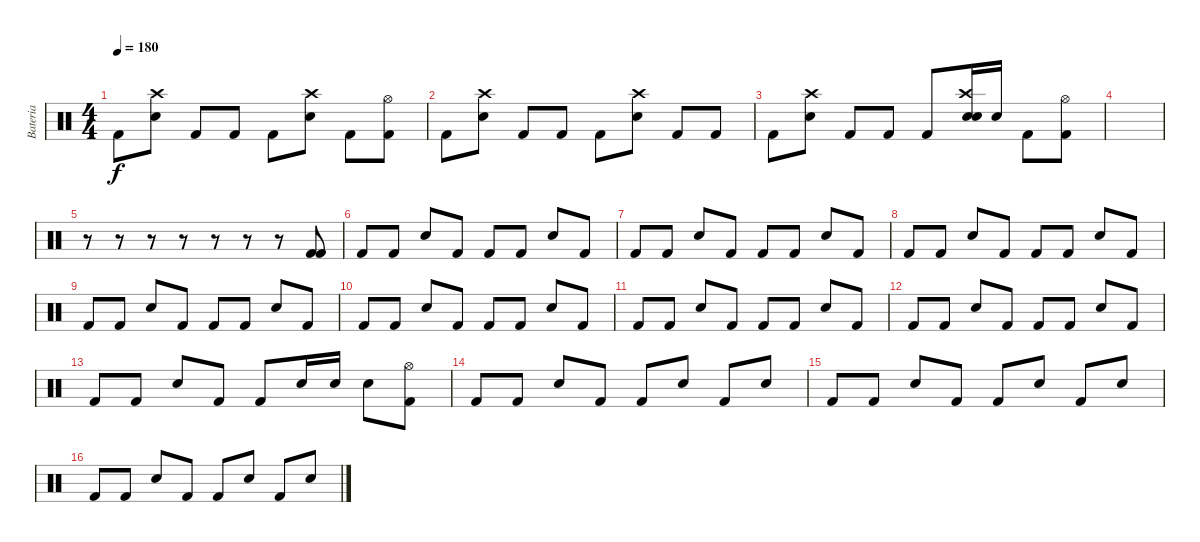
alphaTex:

\track ("Bateria" "Bateria") {instrument percussion}
\staff {score}
\articulation defaults
\ts (4 4)
\tempo 180
\clef neutral
\ks c "Kick (hit) 2".8{dy f}
("Electric Snare (hit)" "Crash high (hit)").8 "Kick (hit) 2".8 "Kick (hit) 2".8 "Kick (hit) 2".8 ("Electric Snare (hit)" "Crash high (hit)").8 "Kick (hit) 2".8 ("Kick (hit) 2" "Hi-Hat (open)").8 |
"Kick (hit) 2".8 ("Electric Snare (hit)" "Crash high (hit)").8 "Kick (hit) 2".8 "Kick (hit) 2".8 "Kick (hit) 2".8 ("Electric Snare (hit)" "Crash high (hit)").8 "Kick (hit) 2".8 "Kick (hit) 2".8 |
"Kick (hit) 2".8 ("Electric Snare (hit)" "Crash high (hit)").8 "Kick (hit) 2".8 "Kick (hit) 2".8 "Kick (hit) 2".8 ("Electric Snare (hit)" "Snare (hit) 2" "Crash high (hit)").16 "Electric Snare (hit)".16 "Kick (hit) 2".8 ("Kick (hit) 2" "Hi-Hat (open)").8 |
|
r.8 r.8 r.8 r.8 r.8 r.8 r.8 ("Kick (hit) 2" "Kick (hit) 2").8 |
"Kick (hit) 2".8 "Kick (hit) 2".8 "Electric Snare (hit)".8 "Kick (hit) 2".8 "Kick (hit) 2".8 "Kick (hit) 2".8 "Electric Snare (hit)".8 "Kick (hit) 2".8 |
"Kick (hit) 2".8 "Kick (hit) 2".8 "Electric Snare (hit)".8 "Kick (hit) 2".8 "Kick (hit) 2".8 "Kick (hit) 2".8 "Electric Snare (hit)".8 "Kick (hit) 2".8 |
"Kick (hit) 2".8 "Kick (hit) 2".8 "Electric Snare (hit)".8 "Kick (hit) 2".8 "Kick (hit) 2".8 "Kick (hit) 2".8 "Electric Snare (hit)".8 "Kick (hit) 2".8 |
"Kick (hit) 2".8 "Kick (hit) 2".8 "Electric Snare (hit)".8 "Kick (hit) 2".8 "Kick (hit) 2".8 "Kick (hit) 2".8 "Electric Snare (hit)".8 "Kick (hit) 2".8 |
"Kick (hit) 2".8 "Kick (hit) 2".8 "Electric Snare (hit)".8 "Kick (hit) 2".8 "Kick (hit) 2".8 "Kick (hit) 2".8 "Electric Snare (hit)".8 "Kick (hit) 2".8 |
"Kick (hit) 2".8 "Kick (hit) 2".8 "Electric Snare (hit)".8 "Kick (hit) 2".8 "Kick (hit) 2".8 "Kick (hit) 2".8 "Electric Snare (hit)".8 "Kick (hit) 2".8 |
"Kick (hit) 2".8 "Kick (hit) 2".8 "Electric Snare (hit)".8 "Kick (hit) 2".8 "Kick (hit) 2".8 "Kick (hit) 2".8 "Electric Snare (hit)".8 "Kick (hit) 2".8 |
"Kick (hit) 2".8 "Kick (hit) 2".8 "Electric Snare (hit)".8 "Kick (hit) 2".8 "Kick (hit) 2".8 "Electric Snare (hit)".16 "Electric Snare (hit)".16 "Electric Snare (hit)".8 ("Kick (hit) 2" "Hi-Hat (open)").8 |
"Kick (hit) 2".8 "Kick (hit) 2".8 "Electric Snare (hit)".8 "Kick (hit) 2".8 "Kick (hit) 2".8 "Electric Snare (hit)".8 "Kick (hit) 2".8 "Electric Snare (hit)".8 |
"Kick (hit) 2".8 "Kick (hit) 2".8 "Electric Snare (hit)".8 "Kick (hit) 2".8 "Kick (hit) 2".8 "Electric Snare (hit)".8 "Kick (hit) 2".8 "Electric Snare (hit)".8 |
"Kick (hit) 2".8 "Kick (hit) 2".8 "Electric Snare (hit)".8 "Kick (hit) 2".8 "Kick (hit) 2".8 "Electric Snare (hit)".8 "Kick (hit) 2".8 "Electric Snare (hit)".8
